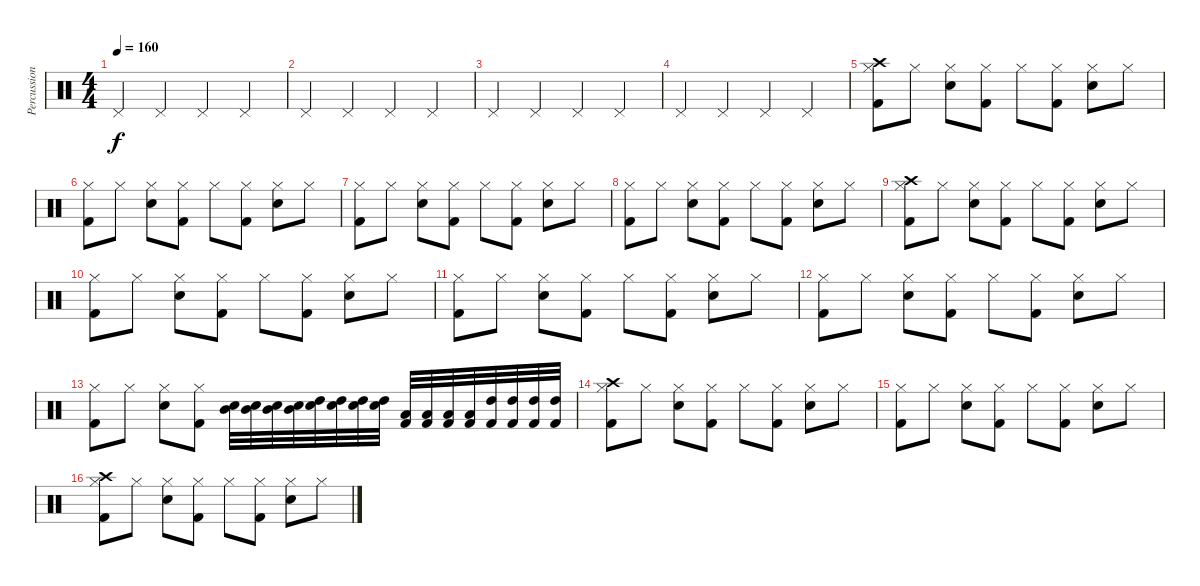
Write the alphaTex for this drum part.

\track ("Percussion" "Percussion") {instrument percussion}
\staff {score}
\articulation defaults
\ts (4 4)
\tempo 160
\clef neutral
\ks c "Pedal Hi-Hat (hit)".4{dy f} "Pedal Hi-Hat (hit)".4 "Pedal Hi-Hat (hit)".4 "Pedal Hi-Hat (hit)".4
|
"Pedal Hi-Hat (hit)".4 "Pedal Hi-Hat (hit)".4 "Pedal Hi-Hat (hit)".4 "Pedal Hi-Hat (hit)".4 |
"Pedal Hi-Hat (hit)".4 "Pedal Hi-Hat (hit)".4 "Pedal Hi-Hat (hit)".4 "Pedal Hi-Hat (hit)".4 |
"Pedal Hi-Hat (hit)".4 "Pedal Hi-Hat (hit)".4 "Pedal Hi-Hat (hit)".4 "Pedal Hi-Hat (hit)".4 |
("Hi-Hat (closed)" "Kick (hit) 2" "Crash high (hit)").8 "Hi-Hat (closed)".8 ("Hi-Hat (closed)" "Electric Snare (hit)").8 ("Hi-Hat (closed)" "Kick (hit) 2").8 "Hi-Hat (closed)".8 ("Hi-Hat (closed)" "Kick (hit) 2").8 ("Hi-Hat (closed)" "Electric Snare (hit)").8 "Hi-Hat (closed)".8 |
("Hi-Hat (closed)" "Kick (hit) 2").8 "Hi-Hat (closed)".8 ("Hi-Hat (closed)" "Electric Snare (hit)").8 ("Hi-Hat (closed)" "Kick (hit) 2").8 "Hi-Hat (closed)".8 ("Hi-Hat (closed)" "Kick (hit) 2").8 ("Hi-Hat (closed)" "Electric Snare (hit)").8 "Hi-Hat (closed)".8 |
("Hi-Hat (closed)" "Kick (hit) 2").8 "Hi-Hat (closed)".8 ("Hi-Hat (closed)" "Electric Snare (hit)").8 ("Hi-Hat (closed)" "Kick (hit) 2").8 "Hi-Hat (closed)".8 ("Hi-Hat (closed)" "Kick (hit) 2").8 ("Hi-Hat (closed)" "Electric Snare (hit)").8 "Hi-Hat (closed)".8 |
("Hi-Hat (closed)" "Kick (hit) 2").8 "Hi-Hat (closed)".8 ("Hi-Hat (closed)" "Electric Snare (hit)").8 ("Hi-Hat (closed)" "Kick (hit) 2").8 "Hi-Hat (closed)".8 ("Hi-Hat (closed)" "Kick (hit) 2").8 ("Hi-Hat (closed)" "Electric Snare (hit)").8 "Hi-Hat (closed)".8 |
("Hi-Hat (closed)" "Kick (hit) 2" "Crash high (hit)").8 "Hi-Hat (closed)".8 ("Hi-Hat (closed)" "Electric Snare (hit)").8 ("Hi-Hat (closed)" "Kick (hit) 2").8 "Hi-Hat (closed)".8 ("Hi-Hat (closed)" "Kick (hit) 2").8 ("Hi-Hat (closed)" "Electric Snare (hit)").8 "Hi-Hat (closed)".8 |
("Hi-Hat (closed)" "Kick (hit) 2").8 "Hi-Hat (closed)".8 ("Hi-Hat (closed)" "Electric Snare (hit)").8 ("Hi-Hat (closed)" "Kick (hit) 2").8 "Hi-Hat (closed)".8 ("Hi-Hat (closed)" "Kick (hit) 2").8 ("Hi-Hat (closed)" "Electric Snare (hit)").8 "Hi-Hat (closed)".8 |
("Hi-Hat (closed)" "Kick (hit) 2").8 "Hi-Hat (closed)".8 ("Hi-Hat (closed)" "Electric Snare (hit)").8 ("Hi-Hat (closed)" "Kick (hit) 2").8 "Hi-Hat (closed)".8 ("Hi-Hat (closed)" "Kick (hit) 2").8 ("Hi-Hat (closed)" "Electric Snare (hit)").8 "Hi-Hat (closed)".8 |
("Hi-Hat (closed)" "Kick (hit) 2").8 "Hi-Hat (closed)".8 ("Hi-Hat (closed)" "Electric Snare (hit)").8 ("Hi-Hat (closed)" "Kick (hit) 2").8 "Hi-Hat (closed)".8 ("Hi-Hat (closed)" "Kick (hit) 2").8 ("Hi-Hat (closed)" "Electric Snare (hit)").8 "Hi-Hat (closed)".8 |
("Hi-Hat (closed)" "Kick (hit) 2").8 "Hi-Hat (closed)".8 ("Hi-Hat (closed)" "Electric Snare (hit)").8 ("Hi-Hat (closed)" "Kick (hit) 2").8 ("Mid Tom (hit)" "Electric Snare (hit)").32 ("Mid Tom (hit)" "Electric Snare (hit)").32 ("Mid Tom (hit)" "Electric Snare (hit)").32 ("Mid Tom (hit)" "Electric Snare (hit)").32 ("High Tom (hit)" "Electric Snare (hit)").32 ("High Tom (hit)" "Electric Snare (hit)").32 ("High Tom (hit)" "Electric Snare (hit)").32 ("High Tom (hit)" "Electric Snare (hit)").32 ("Low Tom (hit)" "Kick (hit) 2").32 ("Low Tom (hit)" "Kick (hit) 2").32 ("Low Tom (hit)" "Kick (hit) 2").32 ("Low Tom (hit)" "Kick (hit) 2").32 ("High Tom (hit)" "Kick (hit) 2").32 ("High Tom (hit)" "Kick (hit) 2").32 ("High Tom (hit)" "Kick (hit) 2").32 ("High Tom (hit)" "Kick (hit) 2").32 |
("Hi-Hat (closed)" "Kick (hit) 2" "Crash high (hit)").8 "Hi-Hat (closed)".8 ("Hi-Hat (closed)" "Electric Snare (hit)").8 ("Hi-Hat (closed)" "Kick (hit) 2").8 "Hi-Hat (closed)".8 ("Hi-Hat (closed)" "Kick (hit) 2").8 ("Hi-Hat (closed)" "Electric Snare (hit)").8 "Hi-Hat (closed)".8 |
("Hi-Hat (closed)" "Kick (hit) 2").8 "Hi-Hat (closed)".8 ("Hi-Hat (closed)" "Electric Snare (hit)").8 ("Hi-Hat (closed)" "Kick (hit) 2").8 "Hi-Hat (closed)".8 ("Hi-Hat (closed)" "Kick (hit) 2").8 ("Hi-Hat (closed)" "Electric Snare (hit)").8 "Hi-Hat (closed)".8 |
("Hi-Hat (closed)" "Kick (hit) 2" "Crash high (hit)").8 "Hi-Hat (closed)".8 ("Hi-Hat (closed)" "Electric Snare (hit)").8 ("Hi-Hat (closed)" "Kick (hit) 2").8 "Hi-Hat (closed)".8 ("Hi-Hat (closed)" "Kick (hit) 2").8 ("Hi-Hat (closed)" "Electric Snare (hit)").8 "Hi-Hat (closed)".8
